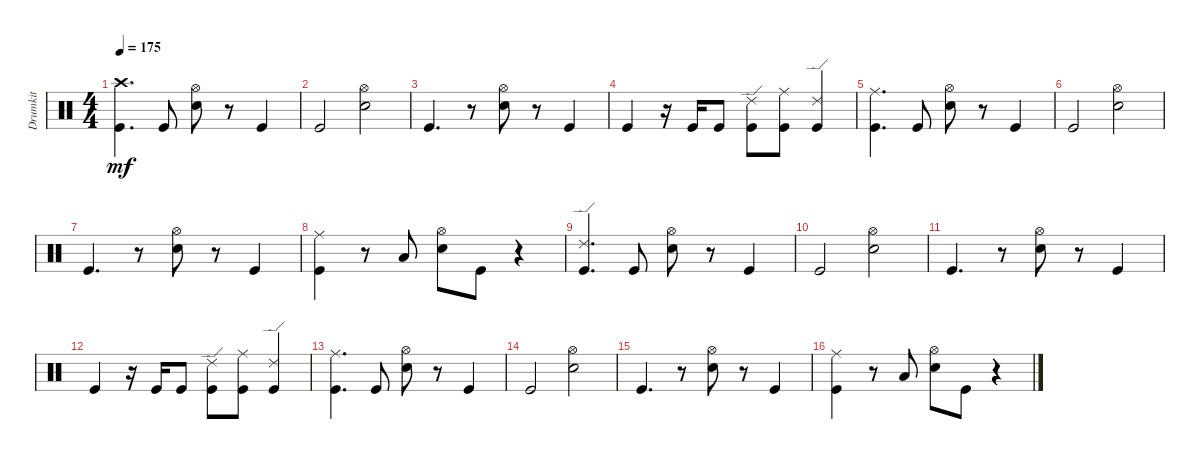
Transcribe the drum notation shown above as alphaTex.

\track ("Drumkit" "Drumkit") {instrument percussion}
\staff {score}
\articulation defaults
\ts (4 4)
\tempo 175
\clef neutral
\ks c
("Kick (hit)" "Crash high (hit)").4{d dy mf} "Kick (hit)".8 ("Snare (hit) 2" "Hi-Hat (open)").8 r.8 "Kick (hit)".4 |
"Kick (hit)".2 ("Snare (hit) 2" "Hi-Hat (open)").2 |
"Kick (hit)".4{d} r.8 ("Snare (hit) 2" "Hi-Hat (open)").8 r.8 "Kick (hit)".4 |
"Kick (hit)".4 r.16 "Kick (hit)".16 "Kick (hit)".8 ("Kick (hit)" "Ride (edge) 2").8 ("Kick (hit)" "Ride (middle)").8 ("Kick (hit)" "Ride (edge) 2").4 |
("Kick (hit)" "Ride (middle)").4{d} "Kick (hit)".8 ("Snare (hit) 2" "Hi-Hat (open)").8 r.8 "Kick (hit)".4 |
"Kick (hit)".2 ("Snare (hit) 2" "Hi-Hat (open)").2 |
"Kick (hit)".4{d} r.8 ("Snare (hit) 2" "Hi-Hat (open)").8 r.8 "Kick (hit)".4 |
("Kick (hit)" "Ride (middle)").4 r.8 "Low Tom (hit)".8 ("Snare (hit) 2" "Hi-Hat (open)").8 "Kick (hit)".8 r.4 |
("Kick (hit)" "Ride (edge) 2").4{d} "Kick (hit)".8 ("Snare (hit) 2" "Hi-Hat (open)").8 r.8 "Kick (hit)".4 |
"Kick (hit)".2 ("Snare (hit) 2" "Hi-Hat (open)").2 |
"Kick (hit)".4{d} r.8 ("Snare (hit) 2" "Hi-Hat (open)").8 r.8 "Kick (hit)".4 |
"Kick (hit)".4 r.16 "Kick (hit)".16 "Kick (hit)".8 ("Kick (hit)" "Ride (edge) 2").8 ("Kick (hit)" "Ride (middle)").8 ("Kick (hit)" "Ride (edge) 2").4 |
("Kick (hit)" "Ride (middle)").4{d} "Kick (hit)".8 ("Snare (hit) 2" "Hi-Hat (open)").8 r.8 "Kick (hit)".4 |
"Kick (hit)".2 ("Snare (hit) 2" "Hi-Hat (open)").2 |
"Kick (hit)".4{d} r.8 ("Snare (hit) 2" "Hi-Hat (open)").8 r.8 "Kick (hit)".4 |
("Kick (hit)" "Ride (middle)").4 r.8 "Low Tom (hit)".8 ("Snare (hit) 2" "Hi-Hat (open)").8 "Kick (hit)".8 r.4
